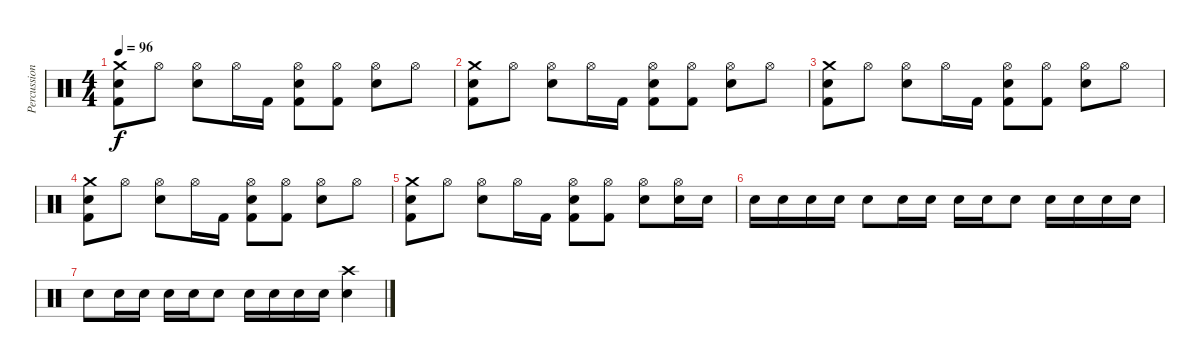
\track ("Percussion" "Percussion") {instrument percussion}
\staff {score}
\articulation defaults
\ts (4 4)
\tempo 96
\clef neutral
\ks c
("Crash medium (hit)" "Snare (hit) 2" "Kick (hit) 2").8{dy f} "Hi-Hat (open)".8 ("Hi-Hat (open)" "Snare (hit) 2").8 "Hi-Hat (open)".16 "Kick (hit) 2".16 ("Hi-Hat (open)" "Snare (hit) 2" "Kick (hit) 2").8 ("Hi-Hat (open)" "Kick (hit) 2").8 ("Hi-Hat (open)" "Snare (hit) 2").8 "Hi-Hat (open)".8 |
("Crash medium (hit)" "Snare (hit) 2" "Kick (hit) 2").8 "Hi-Hat (open)".8 ("Hi-Hat (open)" "Snare (hit) 2").8 "Hi-Hat (open)".16 "Kick (hit) 2".16 ("Hi-Hat (open)" "Snare (hit) 2" "Kick (hit) 2").8 ("Hi-Hat (open)" "Kick (hit) 2").8 ("Hi-Hat (open)" "Snare (hit) 2").8 "Hi-Hat (open)".8 |
("Crash medium (hit)" "Snare (hit) 2" "Kick (hit) 2").8 "Hi-Hat (open)".8 ("Hi-Hat (open)" "Snare (hit) 2").8 "Hi-Hat (open)".16 "Kick (hit) 2".16 ("Hi-Hat (open)" "Snare (hit) 2" "Kick (hit) 2").8 ("Hi-Hat (open)" "Kick (hit) 2").8 ("Hi-Hat (open)" "Snare (hit) 2").8 "Hi-Hat (open)".8 |
("Crash medium (hit)" "Snare (hit) 2" "Kick (hit) 2").8 "Hi-Hat (open)".8 ("Hi-Hat (open)" "Snare (hit) 2").8 "Hi-Hat (open)".16 "Kick (hit) 2".16 ("Hi-Hat (open)" "Snare (hit) 2" "Kick (hit) 2").8 ("Hi-Hat (open)" "Kick (hit) 2").8 ("Hi-Hat (open)" "Snare (hit) 2").8 "Hi-Hat (open)".8 |
("Crash medium (hit)" "Snare (hit) 2" "Kick (hit) 2").8 "Hi-Hat (open)".8 ("Hi-Hat (open)" "Snare (hit) 2").8 "Hi-Hat (open)".16 "Kick (hit) 2".16 ("Hi-Hat (open)" "Snare (hit) 2" "Kick (hit) 2").8 ("Hi-Hat (open)" "Kick (hit) 2").8 ("Hi-Hat (open)" "Snare (hit) 2").8 ("Hi-Hat (open)" "Snare (hit) 2").16 "Snare (hit) 2".16 |
"Snare (hit) 2".16 "Snare (hit) 2".16 "Snare (hit) 2".16 "Snare (hit) 2".16 "Snare (hit) 2".8 "Snare (hit) 2".16 "Snare (hit) 2".16 "Snare (hit) 2".16 "Snare (hit) 2".16 "Snare (hit) 2".8 "Snare (hit) 2".16 "Snare (hit) 2".16 "Snare (hit) 2".16 "Snare (hit) 2".16 |
"Snare (hit) 2".8 "Snare (hit) 2".16 "Snare (hit) 2".16 "Snare (hit) 2".16 "Snare (hit) 2".16 "Snare (hit) 2".8 "Snare (hit) 2".16 "Snare (hit) 2".16 "Snare (hit) 2".16 "Snare (hit) 2".16 ("Crash high (hit)" "Snare (hit) 2").4
